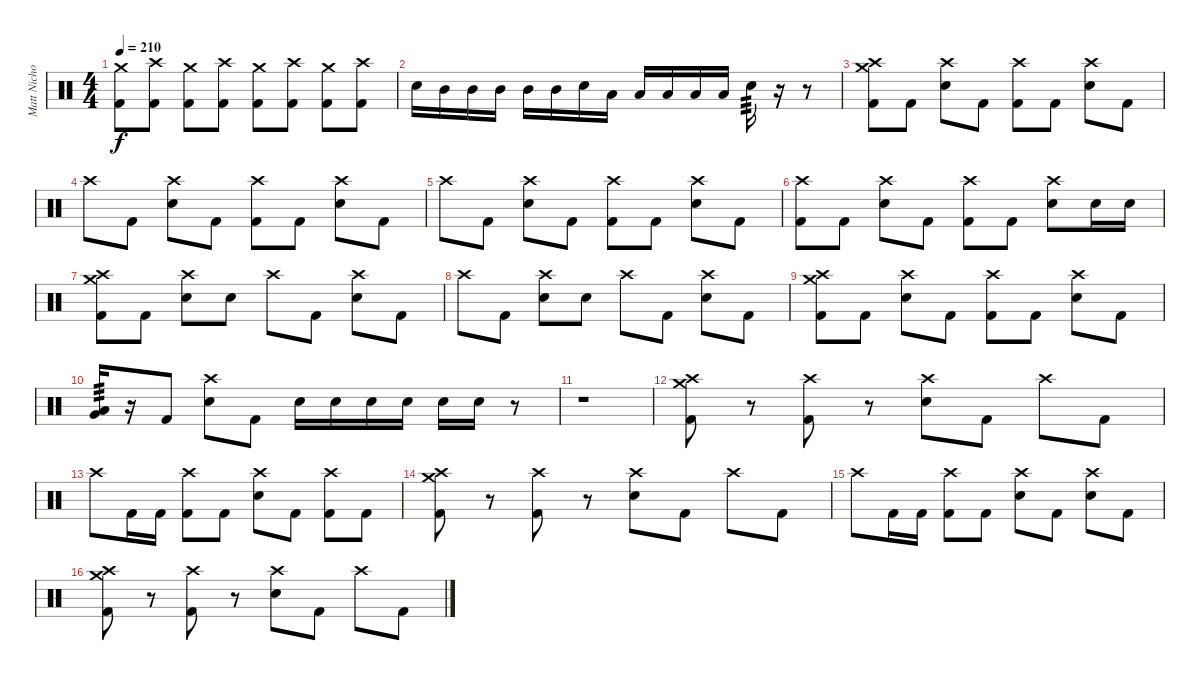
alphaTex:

\track ("Matt Nichols" "Matt Nicho") {instrument percussion}
\staff {score}
\articulation defaults
\ts (4 4)
\tempo 210
\clef neutral
\ks c
("Crash medium (hit)" "Kick (hit) 2").8{dy f} ("Crash high (hit)" "Kick (hit) 2").8 ("Crash medium (hit)" "Kick (hit) 2").8 ("Crash high (hit)" "Kick (hit) 2").8 ("Crash medium (hit)" "Kick (hit) 2").8 ("Crash high (hit)" "Kick (hit) 2").8 ("Crash medium (hit)" "Kick (hit) 2").8 ("Crash high (hit)" "Kick (hit) 2").8 |
"Snare (hit) 2".16 "Mid Tom (hit)".16 "Mid Tom (hit)".16 "Mid Tom (hit)".16 "Mid Tom (hit)".16 "Mid Tom (hit)".16 "Snare (hit) 2".16 "Low Tom (hit)".16 "Low Tom (hit)".16 "Low Tom (hit)".16 "Low Tom (hit)".16 "Low Tom (hit)".16 "Snare (hit) 2".16{tp 3} r.16 r.8 |
("Crash high (hit)" "Crash medium (hit)" "Kick (hit) 2").8 "Kick (hit) 2".8 ("Crash high (hit)" "Snare (hit) 2").8 "Kick (hit) 2".8 ("Crash high (hit)" "Kick (hit) 2").8 "Kick (hit) 2".8 ("Crash high (hit)" "Snare (hit) 2").8 "Kick (hit) 2".8 |
"Crash high (hit)".8 "Kick (hit) 2".8 ("Crash high (hit)" "Snare (hit) 2").8 "Kick (hit) 2".8 ("Crash high (hit)" "Kick (hit) 2").8 "Kick (hit) 2".8 ("Crash high (hit)" "Snare (hit) 2").8 "Kick (hit) 2".8 |
"Crash high (hit)".8 "Kick (hit) 2".8 ("Crash high (hit)" "Snare (hit) 2").8 "Kick (hit) 2".8 ("Crash high (hit)" "Kick (hit) 2").8 "Kick (hit) 2".8 ("Crash high (hit)" "Snare (hit) 2").8 "Kick (hit) 2".8 |
("Crash high (hit)" "Kick (hit) 2").8 "Kick (hit) 2".8 ("Crash high (hit)" "Snare (hit) 2").8 "Kick (hit) 2".8 ("Crash high (hit)" "Kick (hit) 2").8 "Kick (hit) 2".8 ("Crash high (hit)" "Snare (hit) 2").8 "Snare (hit) 2".16 "Snare (hit) 2".16 |
("Crash high (hit)" "Crash medium (hit)" "Kick (hit) 2").8 "Kick (hit) 2".8 ("Crash high (hit)" "Snare (hit) 2").8 "Snare (hit) 2".8 "Crash high (hit)".8 "Kick (hit) 2".8 ("Crash high (hit)" "Snare (hit) 2").8 "Kick (hit) 2".8 |
"Crash high (hit)".8 "Kick (hit) 2".8 ("Crash high (hit)" "Snare (hit) 2").8 "Snare (hit) 2".8 "Crash high (hit)".8 "Kick (hit) 2".8 ("Crash high (hit)" "Snare (hit) 2").8 "Kick (hit) 2".8 |
("Crash high (hit)" "Crash medium (hit)" "Kick (hit) 2").8 "Kick (hit) 2".8 ("Crash high (hit)" "Snare (hit) 2").8 "Kick (hit) 2".8 ("Crash high (hit)" "Kick (hit) 2").8 "Kick (hit) 2".8 ("Crash high (hit)" "Snare (hit) 2").8 "Kick (hit) 2".8 |
("Low Tom (hit)" "Very Low Tom (hit)").16{tp 3} r.16 "Kick (hit) 2".8 ("Crash high (hit)" "Snare (hit) 2").8 "Kick (hit) 2".8 "Snare (hit) 2".16 "Snare (hit) 2".16 "Snare (hit) 2".16 "Snare (hit) 2".16 "Snare (hit) 2".16 "Snare (hit) 2".16 r.8 |
r.1 |
("Crash high (hit)" "Crash medium (hit)" "Kick (hit) 2").8 r.8 ("Crash high (hit)" "Kick (hit) 2").8 r.8 ("Crash high (hit)" "Snare (hit) 2").8 "Kick (hit) 2".8 "Crash high (hit)".8 "Kick (hit) 2".8 |
"Crash high (hit)".8 "Kick (hit) 2".16 "Kick (hit) 2".16 ("Crash high (hit)" "Kick (hit) 2").8 "Kick (hit) 2".8 ("Crash high (hit)" "Snare (hit) 2").8 "Kick (hit) 2".8 ("Crash high (hit)" "Kick (hit) 2").8 "Kick (hit) 2".8 |
("Crash high (hit)" "Crash medium (hit)" "Kick (hit) 2").8 r.8 ("Crash high (hit)" "Kick (hit) 2").8 r.8 ("Crash high (hit)" "Snare (hit) 2").8 "Kick (hit) 2".8 "Crash high (hit)".8 "Kick (hit) 2".8 |
"Crash high (hit)".8 "Kick (hit) 2".16 "Kick (hit) 2".16 ("Crash high (hit)" "Kick (hit) 2").8 "Kick (hit) 2".8 ("Crash high (hit)" "Snare (hit) 2").8 "Kick (hit) 2".8 ("Crash high (hit)" "Snare (hit) 2").8 "Kick (hit) 2".8 |
("Crash high (hit)" "Crash medium (hit)" "Kick (hit) 2").8 r.8 ("Crash high (hit)" "Kick (hit) 2").8 r.8 ("Crash high (hit)" "Snare (hit) 2").8 "Kick (hit) 2".8 "Crash high (hit)".8 "Kick (hit) 2".8
